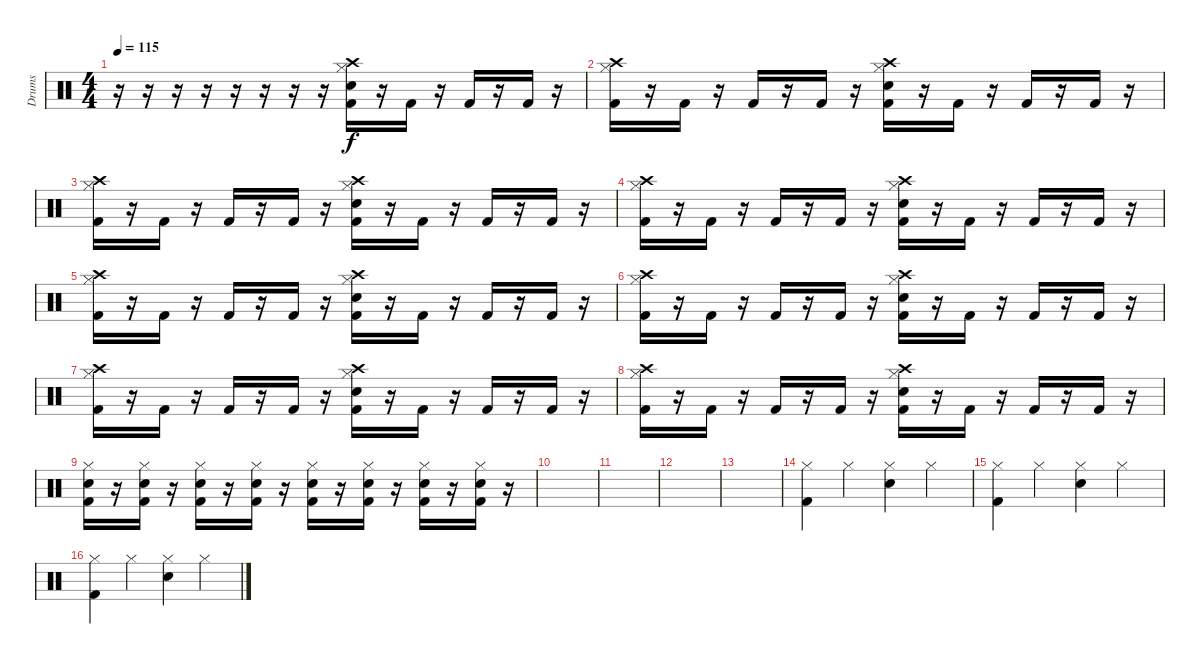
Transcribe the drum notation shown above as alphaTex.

\track ("Drums" "Drums") {instrument percussion}
\staff {score}
\articulation defaults
\ts (4 4)
\tempo 115
\clef neutral
\ks c
r.16{dy f} r.16 r.16 r.16 r.16 r.16 r.16 r.16 ("Kick (hit) 2" "Electric Snare (hit)" "Crash high (hit)" "Hi-Hat (closed)").16 r.16 "Kick (hit) 2".16 r.16 "Kick (hit) 2".16 r.16 "Kick (hit) 2".16 r.16 |
("Kick (hit) 2" "Crash high (hit)" "Hi-Hat (closed)").16 r.16 "Kick (hit) 2".16 r.16 "Kick (hit) 2".16 r.16 "Kick (hit) 2".16 r.16 ("Kick (hit) 2" "Electric Snare (hit)" "Crash high (hit)" "Hi-Hat (closed)").16 r.16 "Kick (hit) 2".16 r.16 "Kick (hit) 2".16 r.16 "Kick (hit) 2".16 r.16 |
("Kick (hit) 2" "Crash high (hit)" "Hi-Hat (closed)").16 r.16 "Kick (hit) 2".16 r.16 "Kick (hit) 2".16 r.16 "Kick (hit) 2".16 r.16 ("Kick (hit) 2" "Electric Snare (hit)" "Crash high (hit)" "Hi-Hat (closed)").16 r.16 "Kick (hit) 2".16 r.16 "Kick (hit) 2".16 r.16 "Kick (hit) 2".16 r.16 |
("Kick (hit) 2" "Crash high (hit)" "Hi-Hat (closed)").16 r.16 "Kick (hit) 2".16 r.16 "Kick (hit) 2".16 r.16 "Kick (hit) 2".16 r.16 ("Kick (hit) 2" "Electric Snare (hit)" "Crash high (hit)" "Hi-Hat (closed)").16 r.16 "Kick (hit) 2".16 r.16 "Kick (hit) 2".16 r.16 "Kick (hit) 2".16 r.16 |
("Kick (hit) 2" "Crash high (hit)" "Hi-Hat (closed)").16 r.16 "Kick (hit) 2".16 r.16 "Kick (hit) 2".16 r.16 "Kick (hit) 2".16 r.16 ("Kick (hit) 2" "Electric Snare (hit)" "Crash high (hit)" "Hi-Hat (closed)").16 r.16 "Kick (hit) 2".16 r.16 "Kick (hit) 2".16 r.16 "Kick (hit) 2".16 r.16 |
("Kick (hit) 2" "Crash high (hit)" "Hi-Hat (closed)").16 r.16 "Kick (hit) 2".16 r.16 "Kick (hit) 2".16 r.16 "Kick (hit) 2".16 r.16 ("Kick (hit) 2" "Electric Snare (hit)" "Crash high (hit)" "Hi-Hat (closed)").16 r.16 "Kick (hit) 2".16 r.16 "Kick (hit) 2".16 r.16 "Kick (hit) 2".16 r.16 |
("Kick (hit) 2" "Crash high (hit)" "Hi-Hat (closed)").16 r.16 "Kick (hit) 2".16 r.16 "Kick (hit) 2".16 r.16 "Kick (hit) 2".16 r.16 ("Kick (hit) 2" "Electric Snare (hit)" "Crash high (hit)" "Hi-Hat (closed)").16 r.16 "Kick (hit) 2".16 r.16 "Kick (hit) 2".16 r.16 "Kick (hit) 2".16 r.16 |
("Kick (hit) 2" "Crash high (hit)" "Hi-Hat (closed)").16 r.16 "Kick (hit) 2".16 r.16 "Kick (hit) 2".16 r.16 "Kick (hit) 2".16 r.16 ("Kick (hit) 2" "Electric Snare (hit)" "Crash high (hit)" "Hi-Hat (closed)").16 r.16 "Kick (hit) 2".16 r.16 "Kick (hit) 2".16 r.16 "Kick (hit) 2".16 r.16 |
("Kick (hit) 2" "Electric Snare (hit)" "Hi-Hat (closed)").16 r.16 ("Kick (hit) 2" "Electric Snare (hit)" "Hi-Hat (closed)").16 r.16 ("Kick (hit) 2" "Electric Snare (hit)" "Hi-Hat (closed)").16 r.16 ("Kick (hit) 2" "Electric Snare (hit)" "Hi-Hat (closed)").16 r.16 ("Kick (hit) 2" "Electric Snare (hit)" "Hi-Hat (closed)").16 r.16 ("Kick (hit) 2" "Electric Snare (hit)" "Hi-Hat (closed)").16 r.16 ("Kick (hit) 2" "Electric Snare (hit)" "Hi-Hat (closed)").16 r.16 ("Kick (hit) 2" "Electric Snare (hit)" "Hi-Hat (closed)").16 r.16 |
|
|
|
|
("Kick (hit) 2" "Hi-Hat (closed)").4 "Hi-Hat (closed)".4 ("Electric Snare (hit)" "Hi-Hat (closed)").4 "Hi-Hat (closed)".4 |
("Kick (hit) 2" "Hi-Hat (closed)").4 "Hi-Hat (closed)".4 ("Electric Snare (hit)" "Hi-Hat (closed)").4 "Hi-Hat (closed)".4 |
("Kick (hit) 2" "Hi-Hat (closed)").4 "Hi-Hat (closed)".4 ("Electric Snare (hit)" "Hi-Hat (closed)").4 "Hi-Hat (closed)".4
